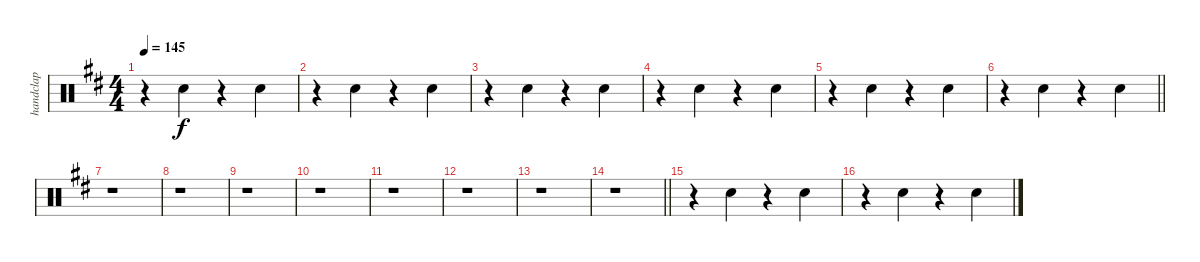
\track ("handclap" "handclap") {instrument percussion}
\staff {score}
\articulation defaults
\ts (4 4)
\tempo 145
\clef neutral
\ks d
r.4{dy f} "Hand Clap (hit)".4 r.4 "Hand Clap (hit)".4 |
r.4 "Hand Clap (hit)".4 r.4 "Hand Clap (hit)".4 |
r.4 "Hand Clap (hit)".4 r.4 "Hand Clap (hit)".4 |
r.4 "Hand Clap (hit)".4 r.4 "Hand Clap (hit)".4 |
r.4 "Hand Clap (hit)".4 r.4 "Hand Clap (hit)".4 |
\barLineRight lightlight
r.4 "Hand Clap (hit)".4 r.4 "Hand Clap (hit)".4 |
r.1 |
r.1 |
r.1 |
r.1 |
r.1 |
r.1 |
r.1 |
\barLineRight lightlight
r.1 |
r.4 "Hand Clap (hit)".4 r.4 "Hand Clap (hit)".4 |
r.4 "Hand Clap (hit)".4 r.4 "Hand Clap (hit)".4
